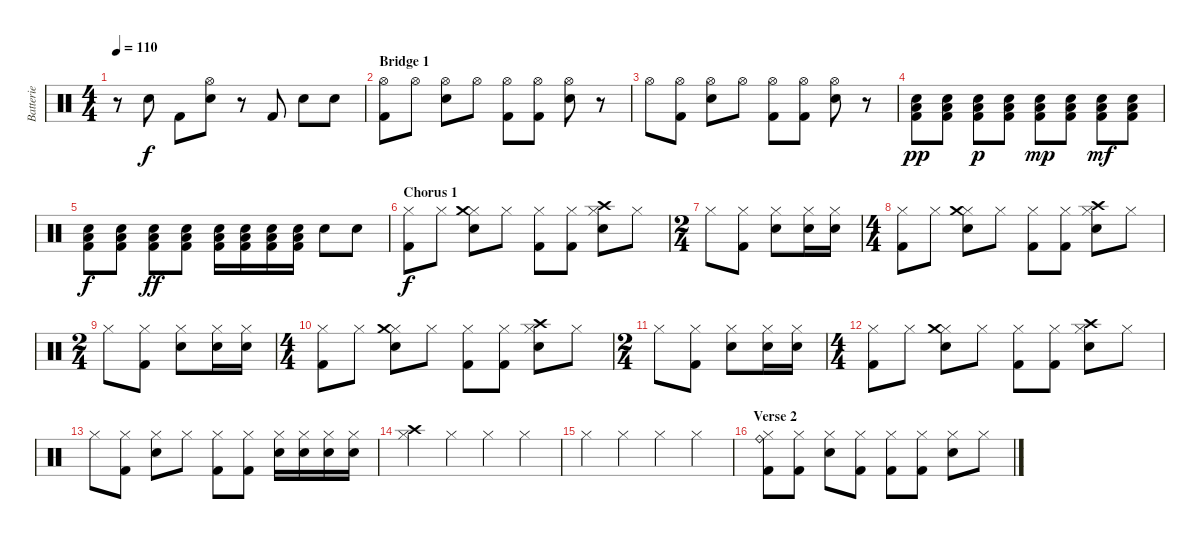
\track ("Batterie" "Batterie") {instrument percussion}
\staff {score}
\articulation defaults
\ts (4 4)
\tempo 110
\clef neutral
\ks c
r.8{dy f} "Electric Snare (hit)".8 "Kick (hit) 2".8 ("Hi-Hat (open)" "Electric Snare (hit)").8 r.8 "Kick (hit) 2".8 "Electric Snare (hit)".8 "Electric Snare (hit)".8 |
\section ("" "Bridge 1")
("Hi-Hat (open)" "Kick (hit) 2").8 "Hi-Hat (open)".8 ("Hi-Hat (open)" "Electric Snare (hit)").8 "Hi-Hat (open)".8 ("Hi-Hat (open)" "Kick (hit) 2").8 ("Hi-Hat (open)" "Kick (hit) 2").8 ("Hi-Hat (open)" "Electric Snare (hit)").8 r.8 |
"Hi-Hat (open)".8 ("Hi-Hat (open)" "Kick (hit) 2").8 ("Hi-Hat (open)" "Electric Snare (hit)").8 "Hi-Hat (open)".8 ("Hi-Hat (open)" "Kick (hit) 2").8 ("Hi-Hat (open)" "Kick (hit) 2").8 ("Hi-Hat (open)" "Electric Snare (hit)").8 r.8 |
("Electric Snare (hit)" "Kick (hit) 2" "Low Floor Tom (hit)").8{dy pp} ("Electric Snare (hit)" "Kick (hit) 2" "Low Floor Tom (hit)").8 ("Electric Snare (hit)" "Kick (hit) 2" "Low Floor Tom (hit)").8{dy p} ("Electric Snare (hit)" "Kick (hit) 2" "Low Floor Tom (hit)").8 ("Electric Snare (hit)" "Kick (hit) 2" "Low Floor Tom (hit)").8{dy mp} ("Electric Snare (hit)" "Kick (hit) 2" "Low Floor Tom (hit)").8 ("Electric Snare (hit)" "Kick (hit) 2" "Low Floor Tom (hit)").8{dy mf} ("Electric Snare (hit)" "Kick (hit) 2" "Low Floor Tom (hit)").8 |
("Electric Snare (hit)" "Kick (hit) 2" "Low Floor Tom (hit)").8{dy f} ("Electric Snare (hit)" "Kick (hit) 2" "Low Floor Tom (hit)").8 ("Electric Snare (hit)" "Kick (hit) 2" "Low Floor Tom (hit)").8{dy ff} ("Electric Snare (hit)" "Kick (hit) 2" "Low Floor Tom (hit)").8 ("Electric Snare (hit)" "Kick (hit) 2" "Low Floor Tom (hit)").16 ("Electric Snare (hit)" "Kick (hit) 2" "Low Floor Tom (hit)").16 ("Electric Snare (hit)" "Kick (hit) 2" "Low Floor Tom (hit)").16 ("Electric Snare (hit)" "Kick (hit) 2" "Low Floor Tom (hit)").16 "Electric Snare (hit)".8 "Electric Snare (hit)".8 |
\section ("" "Chorus 1")
("Hi-Hat (closed)" "Kick (hit) 2").8{dy f} "Hi-Hat (closed)".8 ("Hi-Hat (closed)" "Crash medium (hit)" "Electric Snare (hit)").8 "Hi-Hat (closed)".8 ("Hi-Hat (closed)" "Kick (hit) 2").8 ("Hi-Hat (closed)" "Kick (hit) 2").8 ("Hi-Hat (closed)" "Crash high (hit)" "Electric Snare (hit)").8 "Hi-Hat (closed)".8 |
\ts (2 4)
"Hi-Hat (closed)".8 ("Hi-Hat (closed)" "Kick (hit) 2").8 ("Hi-Hat (closed)" "Electric Snare (hit)").8 ("Hi-Hat (closed)" "Electric Snare (hit)").16 ("Hi-Hat (closed)" "Electric Snare (hit)").16 |
\ts (4 4)
("Hi-Hat (closed)" "Kick (hit) 2").8 "Hi-Hat (closed)".8 ("Hi-Hat (closed)" "Crash medium (hit)" "Electric Snare (hit)").8 "Hi-Hat (closed)".8 ("Hi-Hat (closed)" "Kick (hit) 2").8 ("Hi-Hat (closed)" "Kick (hit) 2").8 ("Hi-Hat (closed)" "Crash high (hit)" "Electric Snare (hit)").8 "Hi-Hat (closed)".8 |
\ts (2 4)
"Hi-Hat (closed)".8 ("Hi-Hat (closed)" "Kick (hit) 2").8 ("Hi-Hat (closed)" "Electric Snare (hit)").8 ("Hi-Hat (closed)" "Electric Snare (hit)").16 ("Hi-Hat (closed)" "Electric Snare (hit)").16 |
\ts (4 4)
("Hi-Hat (closed)" "Kick (hit) 2").8 "Hi-Hat (closed)".8 ("Hi-Hat (closed)" "Crash medium (hit)" "Electric Snare (hit)").8 "Hi-Hat (closed)".8 ("Hi-Hat (closed)" "Kick (hit) 2").8 ("Hi-Hat (closed)" "Kick (hit) 2").8 ("Hi-Hat (closed)" "Crash high (hit)" "Electric Snare (hit)").8 "Hi-Hat (closed)".8 |
\ts (2 4)
"Hi-Hat (closed)".8 ("Hi-Hat (closed)" "Kick (hit) 2").8 ("Hi-Hat (closed)" "Electric Snare (hit)").8 ("Hi-Hat (closed)" "Electric Snare (hit)").16 ("Hi-Hat (closed)" "Electric Snare (hit)").16 |
\ts (4 4)
("Hi-Hat (closed)" "Kick (hit) 2").8 "Hi-Hat (closed)".8 ("Hi-Hat (closed)" "Crash medium (hit)" "Electric Snare (hit)").8 "Hi-Hat (closed)".8 ("Hi-Hat (closed)" "Kick (hit) 2").8 ("Hi-Hat (closed)" "Kick (hit) 2").8 ("Hi-Hat (closed)" "Crash high (hit)" "Electric Snare (hit)").8 "Hi-Hat (closed)".8 |
"Hi-Hat (closed)".8 ("Hi-Hat (closed)" "Kick (hit) 2").8 ("Hi-Hat (closed)" "Electric Snare (hit)").8 "Hi-Hat (closed)".8 ("Hi-Hat (closed)" "Kick (hit) 2").8 ("Hi-Hat (closed)" "Kick (hit) 2").8 ("Hi-Hat (closed)" "Electric Snare (hit)").16 ("Hi-Hat (closed)" "Electric Snare (hit)").16 ("Hi-Hat (closed)" "Electric Snare (hit)").16 ("Hi-Hat (closed)" "Electric Snare (hit)").16 |
("Hi-Hat (closed)" "Crash high (hit)").4 "Hi-Hat (closed)".4 "Hi-Hat (closed)".4 "Hi-Hat (closed)".4 |
"Hi-Hat (closed)".4 "Hi-Hat (closed)".4 "Hi-Hat (closed)".4 "Hi-Hat (closed)".4 |
\section ("" "Verse 2")
("Hi-Hat (closed)" "Ride (bell)" "Kick (hit) 2").8 ("Hi-Hat (closed)" "Kick (hit) 2").8 ("Hi-Hat (closed)" "Electric Snare (hit)").8 ("Hi-Hat (closed)" "Kick (hit) 2").8 ("Hi-Hat (closed)" "Kick (hit) 2").8 ("Hi-Hat (closed)" "Kick (hit) 2").8 ("Hi-Hat (closed)" "Electric Snare (hit)").8 "Hi-Hat (closed)".8
